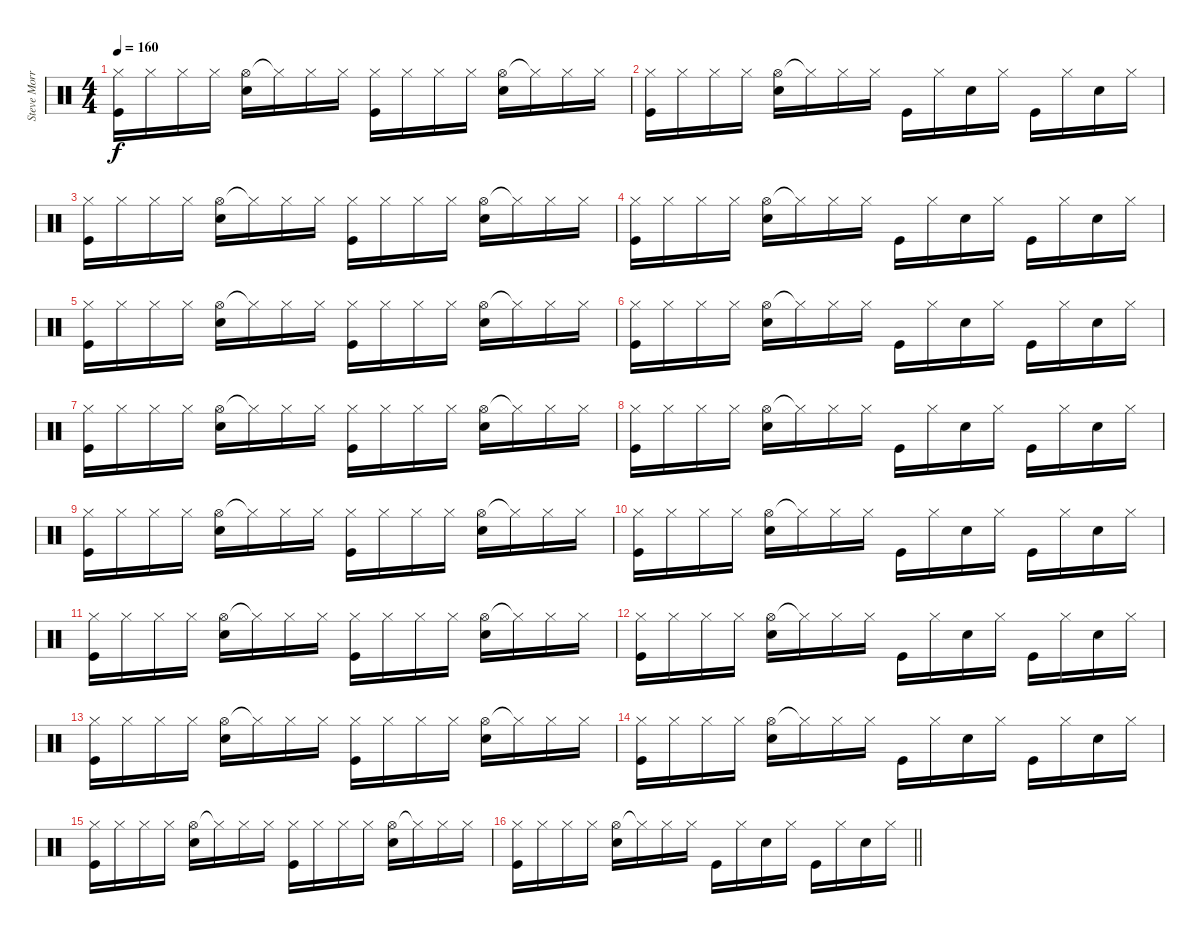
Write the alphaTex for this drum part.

\track ("Steve Morris" "Steve Morr") {instrument percussion}
\staff {score}
\articulation defaults
\ts (4 4)
\tempo 160
\clef neutral
\ks c
("Hi-Hat (closed)" "Kick (hit)").16{dy f} "Hi-Hat (closed)".16 "Hi-Hat (closed)".16 "Hi-Hat (closed)".16 ("Hi-Hat (open)" "Electric Snare (hit)").16 "Hi-Hat (closed)"{t}.16 "Hi-Hat (closed)".16 "Hi-Hat (closed)".16 ("Hi-Hat (closed)" "Kick (hit)").16 "Hi-Hat (closed)".16 "Hi-Hat (closed)".16 "Hi-Hat (closed)".16 ("Hi-Hat (open)" "Electric Snare (hit)").16 "Hi-Hat (closed)"{t}.16 "Hi-Hat (closed)".16 "Hi-Hat (closed)".16 |
("Hi-Hat (closed)" "Kick (hit)").16 "Hi-Hat (closed)".16 "Hi-Hat (closed)".16 "Hi-Hat (closed)".16 ("Hi-Hat (open)" "Electric Snare (hit)").16 "Hi-Hat (closed)"{t}.16 "Hi-Hat (closed)".16 "Hi-Hat (closed)".16 "Kick (hit)".16 "Hi-Hat (closed)".16 "Electric Snare (hit)".16 "Hi-Hat (closed)".16 "Kick (hit)".16 "Hi-Hat (closed)".16 "Electric Snare (hit)".16 "Hi-Hat (closed)".16 |
("Hi-Hat (closed)" "Kick (hit)").16 "Hi-Hat (closed)".16 "Hi-Hat (closed)".16 "Hi-Hat (closed)".16 ("Hi-Hat (open)" "Electric Snare (hit)").16 "Hi-Hat (closed)"{t}.16 "Hi-Hat (closed)".16 "Hi-Hat (closed)".16 ("Hi-Hat (closed)" "Kick (hit)").16 "Hi-Hat (closed)".16 "Hi-Hat (closed)".16 "Hi-Hat (closed)".16 ("Hi-Hat (open)" "Electric Snare (hit)").16 "Hi-Hat (closed)"{t}.16 "Hi-Hat (closed)".16 "Hi-Hat (closed)".16 |
("Hi-Hat (closed)" "Kick (hit)").16 "Hi-Hat (closed)".16 "Hi-Hat (closed)".16 "Hi-Hat (closed)".16 ("Hi-Hat (open)" "Electric Snare (hit)").16 "Hi-Hat (closed)"{t}.16 "Hi-Hat (closed)".16 "Hi-Hat (closed)".16 "Kick (hit)".16 "Hi-Hat (closed)".16 "Electric Snare (hit)".16 "Hi-Hat (closed)".16 "Kick (hit)".16 "Hi-Hat (closed)".16 "Electric Snare (hit)".16 "Hi-Hat (closed)".16 |
("Hi-Hat (closed)" "Kick (hit)").16 "Hi-Hat (closed)".16 "Hi-Hat (closed)".16 "Hi-Hat (closed)".16 ("Hi-Hat (open)" "Electric Snare (hit)").16 "Hi-Hat (closed)"{t}.16 "Hi-Hat (closed)".16 "Hi-Hat (closed)".16 ("Hi-Hat (closed)" "Kick (hit)").16 "Hi-Hat (closed)".16 "Hi-Hat (closed)".16 "Hi-Hat (closed)".16 ("Hi-Hat (open)" "Electric Snare (hit)").16 "Hi-Hat (closed)"{t}.16 "Hi-Hat (closed)".16 "Hi-Hat (closed)".16 |
("Hi-Hat (closed)" "Kick (hit)").16 "Hi-Hat (closed)".16 "Hi-Hat (closed)".16 "Hi-Hat (closed)".16 ("Hi-Hat (open)" "Electric Snare (hit)").16 "Hi-Hat (closed)"{t}.16 "Hi-Hat (closed)".16 "Hi-Hat (closed)".16 "Kick (hit)".16 "Hi-Hat (closed)".16 "Electric Snare (hit)".16 "Hi-Hat (closed)".16 "Kick (hit)".16 "Hi-Hat (closed)".16 "Electric Snare (hit)".16 "Hi-Hat (closed)".16 |
("Hi-Hat (closed)" "Kick (hit)").16 "Hi-Hat (closed)".16 "Hi-Hat (closed)".16 "Hi-Hat (closed)".16 ("Hi-Hat (open)" "Electric Snare (hit)").16 "Hi-Hat (closed)"{t}.16 "Hi-Hat (closed)".16 "Hi-Hat (closed)".16 ("Hi-Hat (closed)" "Kick (hit)").16 "Hi-Hat (closed)".16 "Hi-Hat (closed)".16 "Hi-Hat (closed)".16 ("Hi-Hat (open)" "Electric Snare (hit)").16 "Hi-Hat (closed)"{t}.16 "Hi-Hat (closed)".16 "Hi-Hat (closed)".16 |
("Hi-Hat (closed)" "Kick (hit)").16 "Hi-Hat (closed)".16 "Hi-Hat (closed)".16 "Hi-Hat (closed)".16 ("Hi-Hat (open)" "Electric Snare (hit)").16 "Hi-Hat (closed)"{t}.16 "Hi-Hat (closed)".16 "Hi-Hat (closed)".16 "Kick (hit)".16 "Hi-Hat (closed)".16 "Electric Snare (hit)".16 "Hi-Hat (closed)".16 "Kick (hit)".16 "Hi-Hat (closed)".16 "Electric Snare (hit)".16 "Hi-Hat (closed)".16 |
("Hi-Hat (closed)" "Kick (hit)").16 "Hi-Hat (closed)".16 "Hi-Hat (closed)".16 "Hi-Hat (closed)".16 ("Hi-Hat (open)" "Electric Snare (hit)").16 "Hi-Hat (closed)"{t}.16 "Hi-Hat (closed)".16 "Hi-Hat (closed)".16 ("Hi-Hat (closed)" "Kick (hit)").16 "Hi-Hat (closed)".16 "Hi-Hat (closed)".16 "Hi-Hat (closed)".16 ("Hi-Hat (open)" "Electric Snare (hit)").16 "Hi-Hat (closed)"{t}.16 "Hi-Hat (closed)".16 "Hi-Hat (closed)".16 |
("Hi-Hat (closed)" "Kick (hit)").16 "Hi-Hat (closed)".16 "Hi-Hat (closed)".16 "Hi-Hat (closed)".16 ("Hi-Hat (open)" "Electric Snare (hit)").16 "Hi-Hat (closed)"{t}.16 "Hi-Hat (closed)".16 "Hi-Hat (closed)".16 "Kick (hit)".16 "Hi-Hat (closed)".16 "Electric Snare (hit)".16 "Hi-Hat (closed)".16 "Kick (hit)".16 "Hi-Hat (closed)".16 "Electric Snare (hit)".16 "Hi-Hat (closed)".16 |
("Hi-Hat (closed)" "Kick (hit)").16 "Hi-Hat (closed)".16 "Hi-Hat (closed)".16 "Hi-Hat (closed)".16 ("Hi-Hat (open)" "Electric Snare (hit)").16 "Hi-Hat (closed)"{t}.16 "Hi-Hat (closed)".16 "Hi-Hat (closed)".16 ("Hi-Hat (closed)" "Kick (hit)").16 "Hi-Hat (closed)".16 "Hi-Hat (closed)".16 "Hi-Hat (closed)".16 ("Hi-Hat (open)" "Electric Snare (hit)").16 "Hi-Hat (closed)"{t}.16 "Hi-Hat (closed)".16 "Hi-Hat (closed)".16 |
("Hi-Hat (closed)" "Kick (hit)").16 "Hi-Hat (closed)".16 "Hi-Hat (closed)".16 "Hi-Hat (closed)".16 ("Hi-Hat (open)" "Electric Snare (hit)").16 "Hi-Hat (closed)"{t}.16 "Hi-Hat (closed)".16 "Hi-Hat (closed)".16 "Kick (hit)".16 "Hi-Hat (closed)".16 "Electric Snare (hit)".16 "Hi-Hat (closed)".16 "Kick (hit)".16 "Hi-Hat (closed)".16 "Electric Snare (hit)".16 "Hi-Hat (closed)".16 |
("Hi-Hat (closed)" "Kick (hit)").16 "Hi-Hat (closed)".16 "Hi-Hat (closed)".16 "Hi-Hat (closed)".16 ("Hi-Hat (open)" "Electric Snare (hit)").16 "Hi-Hat (closed)"{t}.16 "Hi-Hat (closed)".16 "Hi-Hat (closed)".16 ("Hi-Hat (closed)" "Kick (hit)").16 "Hi-Hat (closed)".16 "Hi-Hat (closed)".16 "Hi-Hat (closed)".16 ("Hi-Hat (open)" "Electric Snare (hit)").16 "Hi-Hat (closed)"{t}.16 "Hi-Hat (closed)".16 "Hi-Hat (closed)".16 |
("Hi-Hat (closed)" "Kick (hit)").16 "Hi-Hat (closed)".16 "Hi-Hat (closed)".16 "Hi-Hat (closed)".16 ("Hi-Hat (open)" "Electric Snare (hit)").16 "Hi-Hat (closed)"{t}.16 "Hi-Hat (closed)".16 "Hi-Hat (closed)".16 "Kick (hit)".16 "Hi-Hat (closed)".16 "Electric Snare (hit)".16 "Hi-Hat (closed)".16 "Kick (hit)".16 "Hi-Hat (closed)".16 "Electric Snare (hit)".16 "Hi-Hat (closed)".16 |
("Hi-Hat (closed)" "Kick (hit)").16 "Hi-Hat (closed)".16 "Hi-Hat (closed)".16 "Hi-Hat (closed)".16 ("Hi-Hat (open)" "Electric Snare (hit)").16 "Hi-Hat (closed)"{t}.16 "Hi-Hat (closed)".16 "Hi-Hat (closed)".16 ("Hi-Hat (closed)" "Kick (hit)").16 "Hi-Hat (closed)".16 "Hi-Hat (closed)".16 "Hi-Hat (closed)".16 ("Hi-Hat (open)" "Electric Snare (hit)").16 "Hi-Hat (closed)"{t}.16 "Hi-Hat (closed)".16 "Hi-Hat (closed)".16 |
\barLineRight lightlight
("Hi-Hat (closed)" "Kick (hit)").16 "Hi-Hat (closed)".16 "Hi-Hat (closed)".16 "Hi-Hat (closed)".16 ("Hi-Hat (open)" "Electric Snare (hit)").16 "Hi-Hat (closed)"{t}.16 "Hi-Hat (closed)".16 "Hi-Hat (closed)".16 "Kick (hit)".16 "Hi-Hat (closed)".16 "Electric Snare (hit)".16 "Hi-Hat (closed)".16 "Kick (hit)".16 "Hi-Hat (closed)".16 "Electric Snare (hit)".16 "Hi-Hat (closed)".16
